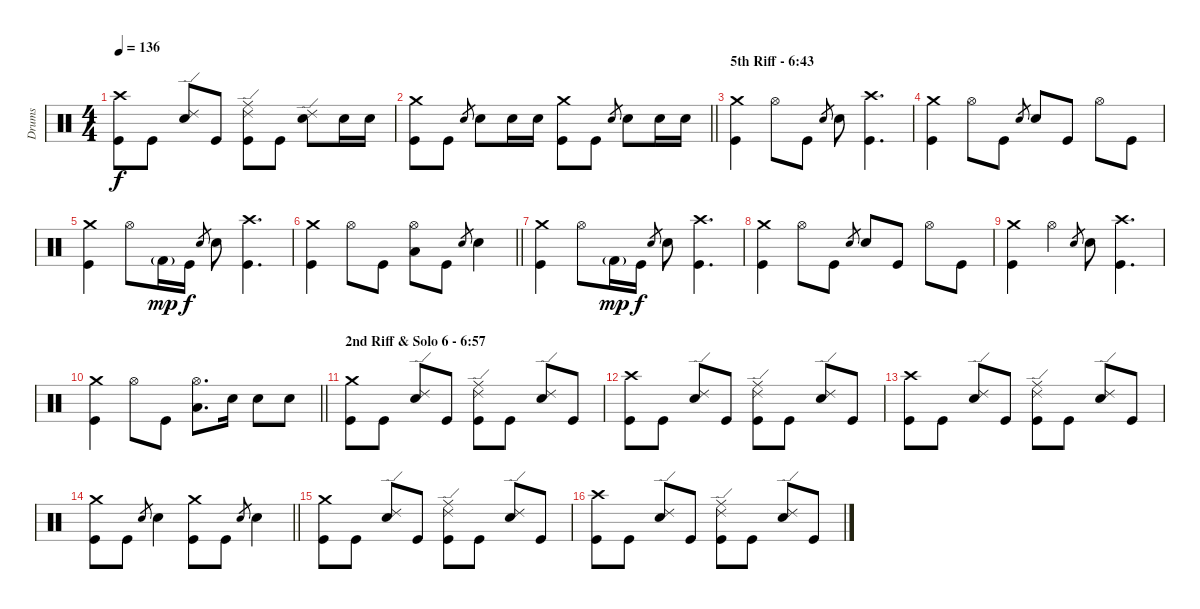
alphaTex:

\track ("Drums" "Drums") {instrument percussion}
\staff {score}
\articulation defaults
\ts (4 4)
\tempo 136
\clef neutral
\ks c
("Crash high (hit)" "Kick (hit)").8{dy f} "Kick (hit)".8 ("Ride (edge) 2" "Snare (hit) 2").8 "Kick (hit)".8 ("Ride (edge) 2" "Ride (middle)" "Kick (hit)").8 "Kick (hit)".8 ("Ride (edge) 2" "Snare (hit) 2").8 "Snare (hit) 2".16 "Snare (hit) 2".16 |
\barLineRight lightlight
("Crash medium (hit)" "Kick (hit)").8 "Kick (hit)".8 "Snare (hit) 2".8{gr} "Snare (hit) 2".8 "Snare (hit) 2".16 "Snare (hit) 2".16 ("Crash medium (hit)" "Kick (hit)").8 "Kick (hit)".8 "Snare (hit) 2".8{gr} "Snare (hit) 2".8 "Snare (hit) 2".16 "Snare (hit) 2".16 |
\section ("" "5th Riff - 6:43")
("Crash medium (hit)" "Kick (hit)").4 "Hi-Hat (open)".8 "Kick (hit)".8 "Snare (hit) 2".8{gr} "Snare (hit) 2".8 ("Crash high (hit)" "Kick (hit)").4{d} |
("Crash medium (hit)" "Kick (hit)").4 "Hi-Hat (open)".8 "Kick (hit)".8 "Snare (hit) 2".8{gr} "Snare (hit) 2".8 "Kick (hit)".8 "Hi-Hat (open)".8 "Kick (hit)".8 |
("Crash medium (hit)" "Kick (hit)").4 "Hi-Hat (open)".8 "Kick (hit) 2"{g}.16{dy mp} "Kick (hit)".16{dy f} "Snare (hit) 2".8{gr} "Snare (hit) 2".8 ("Crash high (hit)" "Kick (hit)").4{d} |
\barLineRight lightlight
("Crash medium (hit)" "Kick (hit)").4 "Hi-Hat (open)".8 "Kick (hit)".8 ("Hi-Hat (open)" "Low Tom (hit)").8 "Kick (hit)".8 "Snare (hit) 2".8{gr} "Snare (hit) 2".4 |
("Crash medium (hit)" "Kick (hit)").4 "Hi-Hat (open)".8 "Kick (hit) 2"{g}.16{dy mp} "Kick (hit)".16{dy f} "Snare (hit) 2".8{gr} "Snare (hit) 2".8 ("Crash high (hit)" "Kick (hit)").4{d} |
("Crash medium (hit)" "Kick (hit)").4 "Hi-Hat (open)".8 "Kick (hit)".8 "Snare (hit) 2".8{gr} "Snare (hit) 2".8 "Kick (hit)".8 "Hi-Hat (open)".8 "Kick (hit)".8 |
("Crash medium (hit)" "Kick (hit)").4 "Hi-Hat (open)".4 "Snare (hit) 2".8{gr} "Snare (hit) 2".8 ("Crash high (hit)" "Kick (hit)").4{d} |
\barLineRight lightlight
("Crash medium (hit)" "Kick (hit)").4 "Hi-Hat (open)".8 "Kick (hit)".8 ("Hi-Hat (open)" "Low Tom (hit)").8{d} "Snare (hit) 2".16 "Snare (hit) 2".8 "Snare (hit) 2".8 |
\section ("" "2nd Riff & Solo 6 - 6:57")
("Crash medium (hit)" "Kick (hit)").8 "Kick (hit)".8 ("Ride (edge) 2" "Snare (hit) 2").8 "Kick (hit)".8 ("Ride (edge) 2" "Ride (middle)" "Kick (hit)").8 "Kick (hit)".8 ("Ride (edge) 2" "Snare (hit) 2").8 "Kick (hit)".8 |
("Crash high (hit)" "Kick (hit)").8 "Kick (hit)".8 ("Ride (edge) 2" "Snare (hit) 2").8 "Kick (hit)".8 ("Ride (edge) 2" "Ride (middle)" "Kick (hit)").8 "Kick (hit)".8 ("Ride (edge) 2" "Snare (hit) 2").8 "Kick (hit)".8 |
("Crash high (hit)" "Kick (hit)").8 "Kick (hit)".8 ("Ride (edge) 2" "Snare (hit) 2").8 "Kick (hit)".8 ("Ride (edge) 2" "Ride (middle)" "Kick (hit)").8 "Kick (hit)".8 ("Ride (edge) 2" "Snare (hit) 2").8 "Kick (hit)".8 |
\barLineRight lightlight
("Crash medium (hit)" "Kick (hit)").8 "Kick (hit)".8 "Snare (hit) 2".8{gr} "Snare (hit) 2".4 ("Crash medium (hit)" "Kick (hit)").8 "Kick (hit)".8 "Snare (hit) 2".8{gr} "Snare (hit) 2".4 |
("Crash medium (hit)" "Kick (hit)").8 "Kick (hit)".8 ("Ride (edge) 2" "Snare (hit) 2").8 "Kick (hit)".8 ("Ride (edge) 2" "Ride (middle)" "Kick (hit)").8 "Kick (hit)".8 ("Ride (edge) 2" "Snare (hit) 2").8 "Kick (hit)".8 |
("Crash high (hit)" "Kick (hit)").8 "Kick (hit)".8 ("Ride (edge) 2" "Snare (hit) 2").8 "Kick (hit)".8 ("Ride (edge) 2" "Ride (middle)" "Kick (hit)").8 "Kick (hit)".8 ("Ride (edge) 2" "Snare (hit) 2").8 "Kick (hit)".8
